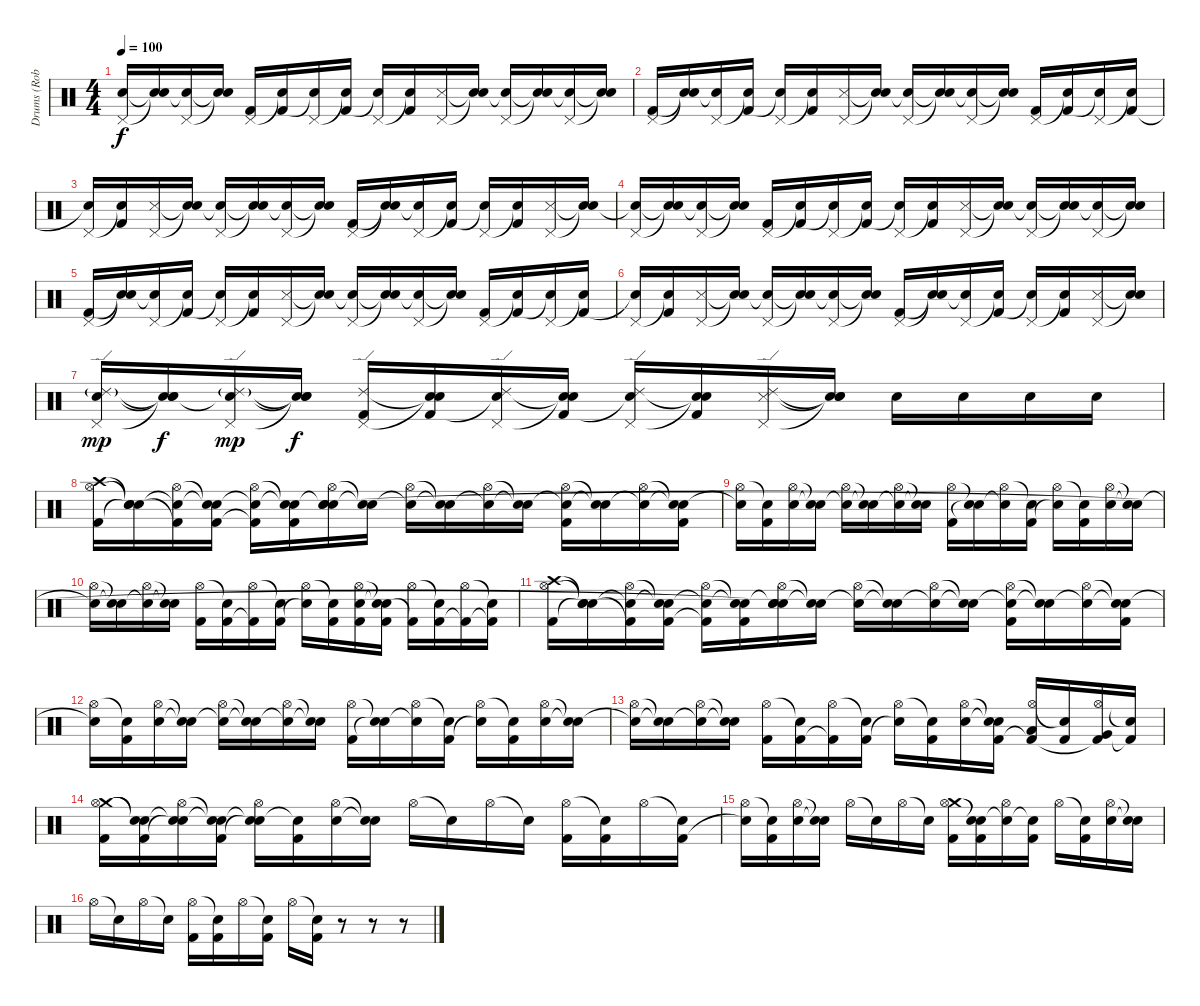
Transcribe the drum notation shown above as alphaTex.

\track ("Drums (Rob Bourdon)" "Drums (Rob") {instrument percussion}
\staff {score}
\articulation defaults
\ts (4 4)
\tempo 100
\clef neutral
\ks c
("Pedal Hi-Hat (hit)" "Snare (hit)"{t}).16{dy f} ("Snare (hit)"{t} "Snare (hit)"{t}).16 ("Pedal Hi-Hat (hit)" "Snare (hit)"{t}).16 ("Snare (hit)"{t} "Snare (hit)"{t}).16 ("Pedal Hi-Hat (hit)" "Kick (hit) 2").16 ("Snare (hit)"{t} "Kick (hit) 2").16 ("Pedal Hi-Hat (hit)" "Snare (hit)"{t}).16 ("Snare (hit)"{t} "Kick (hit) 2").16 ("Pedal Hi-Hat (hit)" "Snare (hit)"{t}).16 ("Snare (hit)"{t} "Kick (hit) 2").16 ("Pedal Hi-Hat (hit)" "Snare (side stick) 3").16 ("Snare (hit)"{t} "Snare (hit)"{t}).16 ("Pedal Hi-Hat (hit)" "Snare (hit)"{t}).16 ("Snare (hit)"{t} "Snare (hit)"{t}).16 ("Pedal Hi-Hat (hit)" "Snare (hit)"{t}).16 ("Snare (hit)"{t} "Snare (hit)"{t}).16 |
("Pedal Hi-Hat (hit)" "Kick (hit) 2").16 ("Snare (hit)"{t} "Snare (hit)"{t}).16 ("Pedal Hi-Hat (hit)" "Snare (hit)"{t}).16 ("Snare (hit)"{t} "Kick (hit) 2").16 ("Pedal Hi-Hat (hit)" "Snare (hit)"{t}).16 ("Snare (hit)"{t} "Kick (hit) 2").16 ("Pedal Hi-Hat (hit)" "Snare (side stick) 3").16 ("Snare (hit)"{t} "Snare (hit)"{t}).16 ("Pedal Hi-Hat (hit)" "Snare (hit)"{t}).16 ("Snare (hit)"{t} "Snare (hit)"{t}).16 ("Pedal Hi-Hat (hit)" "Snare (hit)"{t}).16 ("Snare (hit)"{t} "Snare (hit)"{t}).16 ("Pedal Hi-Hat (hit)" "Kick (hit) 2").16 ("Snare (hit)"{t} "Kick (hit) 2").16 ("Pedal Hi-Hat (hit)" "Snare (hit)"{t}).16 ("Snare (hit)"{t} "Kick (hit) 2").16 |
("Pedal Hi-Hat (hit)" "Snare (hit)"{t}).16 ("Snare (hit)"{t} "Kick (hit) 2").16 ("Pedal Hi-Hat (hit)" "Snare (side stick) 3").16 ("Snare (hit)"{t} "Snare (hit)"{t}).16 ("Pedal Hi-Hat (hit)" "Snare (hit)"{t}).16 ("Snare (hit)"{t} "Snare (hit)"{t}).16 ("Pedal Hi-Hat (hit)" "Snare (hit)"{t}).16 ("Snare (hit)"{t} "Snare (hit)"{t}).16 ("Pedal Hi-Hat (hit)" "Kick (hit) 2").16 ("Snare (hit)"{t} "Snare (hit)"{t}).16 ("Pedal Hi-Hat (hit)" "Snare (hit)"{t}).16 ("Snare (hit)"{t} "Kick (hit) 2").16 ("Pedal Hi-Hat (hit)" "Snare (hit)"{t}).16 ("Snare (hit)"{t} "Kick (hit) 2").16 ("Pedal Hi-Hat (hit)" "Snare (side stick) 3").16 ("Snare (hit)"{t} "Snare (hit)"{t}).16 |
("Pedal Hi-Hat (hit)" "Snare (hit)"{t}).16 ("Snare (hit)"{t} "Snare (hit)"{t}).16 ("Pedal Hi-Hat (hit)" "Snare (hit)"{t}).16 ("Snare (hit)"{t} "Snare (hit)"{t}).16 ("Pedal Hi-Hat (hit)" "Kick (hit) 2").16 ("Snare (hit)"{t} "Kick (hit) 2").16 ("Pedal Hi-Hat (hit)" "Snare (hit)"{t}).16 ("Snare (hit)"{t} "Kick (hit) 2").16 ("Pedal Hi-Hat (hit)" "Snare (hit)"{t}).16 ("Snare (hit)"{t} "Kick (hit) 2").16 ("Pedal Hi-Hat (hit)" "Snare (side stick) 3").16 ("Snare (hit)"{t} "Snare (hit)"{t}).16 ("Pedal Hi-Hat (hit)" "Snare (hit)"{t}).16 ("Snare (hit)"{t} "Snare (hit)"{t}).16 ("Pedal Hi-Hat (hit)" "Snare (hit)"{t}).16 ("Snare (hit)"{t} "Snare (hit)"{t}).16 |
("Pedal Hi-Hat (hit)" "Kick (hit) 2").16 ("Snare (hit)"{t} "Snare (hit)"{t}).16 ("Pedal Hi-Hat (hit)" "Snare (hit)"{t}).16 ("Snare (hit)"{t} "Kick (hit) 2").16 ("Pedal Hi-Hat (hit)" "Snare (hit)"{t}).16 ("Snare (hit)"{t} "Kick (hit) 2").16 ("Pedal Hi-Hat (hit)" "Snare (side stick) 3").16 ("Snare (hit)"{t} "Snare (hit)"{t}).16 ("Pedal Hi-Hat (hit)" "Snare (hit)"{t}).16 ("Snare (hit)"{t} "Snare (hit)"{t}).16 ("Pedal Hi-Hat (hit)" "Snare (hit)"{t}).16 ("Snare (hit)"{t} "Snare (hit)"{t}).16 ("Pedal Hi-Hat (hit)" "Kick (hit) 2").16 ("Snare (hit)"{t} "Kick (hit) 2").16 ("Pedal Hi-Hat (hit)" "Snare (hit)"{t}).16 ("Snare (hit)"{t} "Kick (hit) 2").16 |
("Pedal Hi-Hat (hit)" "Snare (hit)"{t}).16 ("Snare (hit)"{t} "Kick (hit) 2").16 ("Pedal Hi-Hat (hit)" "Snare (side stick) 3").16 ("Snare (hit)"{t} "Snare (hit)"{t}).16 ("Pedal Hi-Hat (hit)" "Snare (hit)"{t}).16 ("Snare (hit)"{t} "Snare (hit)"{t}).16 ("Pedal Hi-Hat (hit)" "Snare (hit)"{t}).16 ("Snare (hit)"{t} "Snare (hit)"{t}).16 ("Pedal Hi-Hat (hit)" "Kick (hit) 2").16 ("Snare (hit)"{t} "Snare (hit)"{t}).16 ("Pedal Hi-Hat (hit)" "Snare (hit)"{t}).16 ("Snare (hit)"{t} "Kick (hit) 2").16 ("Pedal Hi-Hat (hit)" "Snare (hit)"{t}).16 ("Snare (hit)"{t} "Kick (hit) 2").16 ("Pedal Hi-Hat (hit)" "Snare (side stick) 3").16 ("Snare (hit)"{t} "Snare (hit)"{t}).16 |
("Ride (edge) 2"{g} "Pedal Hi-Hat (hit)" "Snare (hit)").16{dy mp} ("Snare (hit)"{t} "Snare (hit)"{t} "Snare (hit)"{t}).16{dy f} ("Ride (edge) 2"{g} "Pedal Hi-Hat (hit)" "Snare (hit)"{t}).16{dy mp} ("Snare (hit)"{t} "Snare (hit)"{t} "Snare (hit)"{t}).16{dy f} ("Ride (edge) 2" "Pedal Hi-Hat (hit)" "Kick (hit) 2").16 ("Snare (hit)"{t} "Snare (hit)"{t} "Kick (hit) 2").16 ("Ride (edge) 2" "Pedal Hi-Hat (hit)" "Snare (hit)"{t}).16 ("Snare (hit)"{t} "Snare (hit)"{t} "Kick (hit) 2").16 ("Ride (edge) 2" "Pedal Hi-Hat (hit)" "Snare (hit)"{t}).16 ("Snare (hit)"{t} "Snare (hit)"{t} "Kick (hit) 2").16 ("Ride (edge) 2" "Pedal Hi-Hat (hit)" "Snare (side stick) 3").16 ("Snare (hit)"{t} "Snare (hit)"{t} "Snare (hit)"{t}).16 "Electric Snare (hit)".16 "Electric Snare (hit)".16 "Electric Snare (hit)".16 "Electric Snare (hit)".16 |
("Crash high (hit)" "Hi-Hat (open)" "Kick (hit) 2").16{volume 13} ("Snare (hit)"{t} "Snare (hit)"{t} "Snare (hit)"{t}).16 ("Snare (hit)"{t} "Hi-Hat (open)" "Kick (hit) 2"{t}).16 ("Snare (hit)"{t} "Snare (hit)"{t} "Kick (hit) 2").16 ("Snare (hit)"{t} "Hi-Hat (open)" "Kick (hit) 2"{t}).16 ("Snare (hit)"{t} "Snare (hit)"{t} "Kick (hit) 2").16 ("Snare (hit)"{t} "Hi-Hat (open)" "Electric Snare (hit)" "Snare (hit)").16 ("Snare (hit)"{t} "Snare (hit)"{t}).16 ("Hi-Hat (open)" "Electric Snare (hit)"{t}).16 ("Snare (hit)"{t} "Snare (hit)"{t}).16 ("Hi-Hat (open)" "Snare (hit)"{t}).16 ("Snare (hit)"{t} "Snare (hit)"{t}).16 ("Hi-Hat (open)" "Snare (hit)"{t} "Kick (hit) 2").16 ("Snare (hit)"{t} "Snare (hit)"{t}).16 ("Hi-Hat (open)" "Snare (hit)"{t}).16 ("Snare (hit)"{t} "Snare (hit)"{t} "Kick (hit) 2").16 |
("Hi-Hat (open)" "Snare (hit)"{t}).16 ("Snare (hit)"{t} "Kick (hit) 2").16 ("Hi-Hat (open)" "Electric Snare (hit)").16 ("Snare (hit)"{t} "Snare (hit)"{t}).16 ("Hi-Hat (open)" "Snare (hit)"{t}).16 ("Snare (hit)"{t} "Snare (hit)"{t}).16 ("Hi-Hat (open)" "Snare (hit)"{t}).16 ("Snare (hit)"{t} "Snare (hit)"{t}).16 ("Hi-Hat (open)" "Kick (hit) 2").16 ("Snare (hit)"{t} "Snare (hit)"{t}).16 ("Hi-Hat (open)" "Snare (hit)"{t}).16 ("Snare (hit)"{t} "Kick (hit) 2").16 ("Hi-Hat (open)" "Snare (hit)"{t}).16 ("Snare (hit)"{t} "Kick (hit) 2").16 ("Hi-Hat (open)" "Electric Snare (hit)").16 ("Snare (hit)"{t} "Snare (hit)"{t}).16 |
("Hi-Hat (open)" "Snare (hit)"{t}).16 ("Snare (hit)"{t} "Snare (hit)"{t}).16 ("Hi-Hat (open)" "Snare (hit)"{t}).16 ("Snare (hit)"{t} "Snare (hit)"{t}).16 ("Hi-Hat (open)" "Kick (hit) 2").16 ("Snare (hit)"{t} "Kick (hit) 2").16 ("Hi-Hat (open)" "Kick (hit) 2"{t}).16 ("Snare (hit)"{t} "Kick (hit) 2").16 ("Hi-Hat (open)" "Snare (hit)"{t}).16 ("Snare (hit)"{t} "Kick (hit) 2").16 ("Hi-Hat (open)" "Electric Snare (hit)" "Kick (hit) 2").16 ("Snare (hit)"{t} "Snare (hit)"{t} "Kick (hit) 2").16 ("Hi-Hat (open)" "Kick (hit) 2"{t}).16 ("Snare (hit)"{t} "Kick (hit) 2").16 ("Hi-Hat (open)" "Kick (hit) 2"{t}).16 ("Snare (hit)"{t} "Kick (hit) 2"{t}).16 |
("Crash high (hit)" "Hi-Hat (open)" "Kick (hit) 2").16 ("Snare (hit)"{t} "Snare (hit)"{t} "Snare (hit)"{t}).16 ("Snare (hit)"{t} "Hi-Hat (open)" "Kick (hit) 2"{t}).16 ("Snare (hit)"{t} "Snare (hit)"{t} "Kick (hit) 2").16 ("Snare (hit)"{t} "Hi-Hat (open)" "Kick (hit) 2"{t}).16 ("Snare (hit)"{t} "Snare (hit)"{t} "Kick (hit) 2").16 ("Snare (hit)"{t} "Hi-Hat (open)" "Electric Snare (hit)" "Snare (hit)"{t}).16 ("Snare (hit)"{t} "Snare (hit)"{t}).16 ("Hi-Hat (open)" "Electric Snare (hit)"{t}).16 ("Snare (hit)"{t} "Snare (hit)"{t}).16 ("Hi-Hat (open)" "Snare (hit)"{t}).16 ("Snare (hit)"{t} "Snare (hit)"{t}).16 ("Hi-Hat (open)" "Snare (hit)"{t} "Kick (hit) 2").16 ("Snare (hit)"{t} "Snare (hit)"{t}).16 ("Hi-Hat (open)" "Snare (hit)"{t}).16 ("Snare (hit)"{t} "Snare (hit)"{t} "Kick (hit) 2").16 |
("Hi-Hat (open)" "Snare (hit)"{t}).16 ("Snare (hit)"{t} "Kick (hit) 2").16 ("Hi-Hat (open)" "Electric Snare (hit)").16 ("Snare (hit)"{t} "Snare (hit)"{t}).16 ("Hi-Hat (open)" "Snare (hit)"{t}).16 ("Snare (hit)"{t} "Snare (hit)"{t}).16 ("Hi-Hat (open)" "Snare (hit)"{t}).16 ("Snare (hit)"{t} "Snare (hit)"{t}).16 ("Hi-Hat (open)" "Kick (hit) 2").16 ("Snare (hit)"{t} "Snare (hit)"{t}).16 ("Hi-Hat (open)" "Snare (hit)"{t}).16 ("Snare (hit)"{t} "Kick (hit) 2").16 ("Hi-Hat (open)" "Snare (hit)"{t}).16 ("Snare (hit)"{t} "Kick (hit) 2").16 ("Hi-Hat (open)" "Electric Snare (hit)").16 ("Snare (hit)"{t} "Snare (hit)"{t}).16 |
("Hi-Hat (open)" "Snare (hit)"{t}).16 ("Snare (hit)"{t} "Snare (hit)"{t}).16 ("Hi-Hat (open)" "Snare (hit)"{t}).16 ("Snare (hit)"{t} "Snare (hit)"{t}).16 ("Hi-Hat (open)" "Kick (hit) 2").16 ("Snare (hit)"{t} "Kick (hit) 2").16 ("Hi-Hat (open)" "Kick (hit) 2"{t}).16 ("Snare (hit)"{t} "Kick (hit) 2").16 ("Hi-Hat (open)" "Snare (hit)"{t}).16 ("Snare (hit)"{t} "Kick (hit) 2").16 ("Hi-Hat (open)" "Electric Snare (hit)").16 ("Snare (hit)"{t} "Snare (hit)"{t} "Kick (hit) 2").16 ("Hi-Hat (open)" "Low Tom (hit)" "Kick (hit) 2"{t}).16 ("Snare (hit)"{t} "Kick (hit) 2").16 ("Hi-Hat (open)" "Very Low Tom (hit)" "Kick (hit) 2"{t}).16 ("Snare (hit)"{t} "Kick (hit) 2"{t}).16 |
("Crash medium (hit)" "Hi-Hat (open)" "Kick (hit) 2").16 ("Snare (hit)"{t} "Snare (hit)"{t} "Kick (hit) 2").16 ("Snare (hit)"{t} "Hi-Hat (open)" "Snare (hit)"{t}).16 ("Snare (hit)"{t} "Snare (hit)"{t} "Kick (hit) 2").16 ("Snare (hit)"{t} "Hi-Hat (open)" "Snare (hit)"{t}).16 ("Snare (hit)"{t} "Kick (hit) 2").16 ("Hi-Hat (open)" "Electric Snare (hit)").16 ("Snare (hit)"{t} "Snare (hit)"{t}).16 "Hi-Hat (open)".16 "Snare (hit)"{t}.16 "Hi-Hat (open)".16 "Snare (hit)"{t}.16 ("Hi-Hat (open)" "Kick (hit) 2").16 ("Snare (hit)"{t} "Kick (hit) 2").16 "Hi-Hat (open)".16 ("Snare (hit)"{t} "Kick (hit) 2").16 |
("Hi-Hat (open)" "Snare (hit)"{t}).16 ("Snare (hit)"{t} "Kick (hit) 2").16 ("Hi-Hat (open)" "Electric Snare (hit)").16 ("Snare (hit)"{t} "Snare (hit)"{t}).16 "Hi-Hat (open)".16 "Snare (hit)"{t}.16 "Hi-Hat (open)".16 "Snare (hit)"{t}.16 ("Crash medium (hit)" "Hi-Hat (open)" "Kick (hit) 2").16 ("Snare (hit)"{t} "Snare (hit)"{t} "Kick (hit) 2").16 ("Snare (hit)"{t} "Hi-Hat (open)").16 ("Snare (hit)"{t} "Kick (hit) 2").16 "Hi-Hat (open)".16 ("Snare (hit)"{t} "Kick (hit) 2").16 ("Hi-Hat (open)" "Electric Snare (hit)").16 ("Snare (hit)"{t} "Snare (hit)"{t}).16 |
"Hi-Hat (open)".16 "Snare (hit)"{t}.16 "Hi-Hat (open)".16 "Snare (hit)"{t}.16 ("Hi-Hat (open)" "Kick (hit) 2").16 ("Snare (hit)"{t} "Kick (hit) 2").16 "Hi-Hat (open)".16 ("Snare (hit)"{t} "Kick (hit) 2").16 "Hi-Hat (open)".16 ("Snare (hit)"{t} "Kick (hit) 2").16 r.8 r.8 r.8
